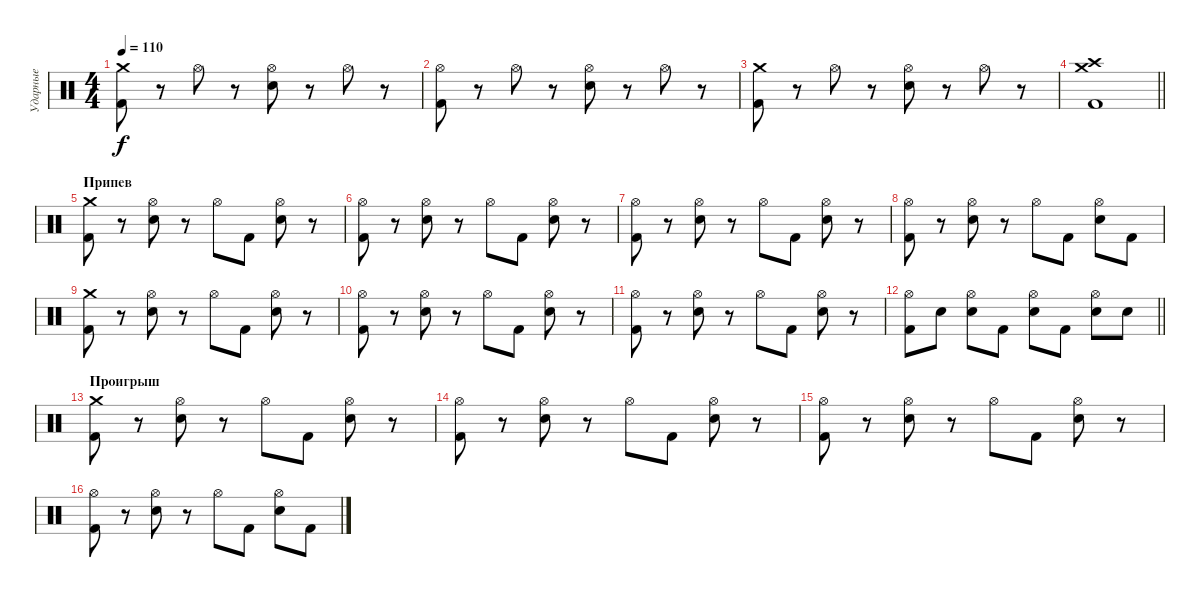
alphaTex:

\track ("Ударные" "Ударные") {instrument percussion}
\staff {score}
\articulation defaults
\ts (4 4)
\tempo 110
\clef neutral
\ks c
("Crash medium (hit)" "Kick (hit) 2").8{dy f} r.8 "Hi-Hat (open)".8 r.8 ("Hi-Hat (open)" "Snare (hit) 2").8 r.8 "Hi-Hat (open)".8 r.8 |
("Hi-Hat (open)" "Kick (hit) 2").8 r.8 "Hi-Hat (open)".8 r.8 ("Hi-Hat (open)" "Snare (hit) 2").8 r.8 "Hi-Hat (open)".8 r.8 |
("Crash medium (hit)" "Kick (hit) 2").8 r.8 "Hi-Hat (open)".8 r.8 ("Hi-Hat (open)" "Snare (hit) 2").8 r.8 "Hi-Hat (open)".8 r.8 |
\barLineRight lightlight
("Crash medium (hit)" "Crash high (hit)" "Kick (hit) 2").1 |
\section ("" "Припев")
("Crash medium (hit)" "Kick (hit) 2").8 r.8 ("Hi-Hat (open)" "Snare (hit) 2").8 r.8 "Hi-Hat (open)".8 "Kick (hit) 2".8 ("Hi-Hat (open)" "Snare (hit) 2").8 r.8 |
("Hi-Hat (open)" "Kick (hit) 2").8 r.8 ("Hi-Hat (open)" "Snare (hit) 2").8 r.8 "Hi-Hat (open)".8 "Kick (hit) 2".8 ("Hi-Hat (open)" "Snare (hit) 2").8 r.8 |
("Hi-Hat (open)" "Kick (hit) 2").8 r.8 ("Hi-Hat (open)" "Snare (hit) 2").8 r.8 "Hi-Hat (open)".8 "Kick (hit) 2".8 ("Hi-Hat (open)" "Snare (hit) 2").8 r.8 |
("Hi-Hat (open)" "Kick (hit) 2").8 r.8 ("Hi-Hat (open)" "Snare (hit) 2").8 r.8 "Hi-Hat (open)".8 "Kick (hit) 2".8 ("Hi-Hat (open)" "Snare (hit) 2").8 "Kick (hit) 2".8 |
("Crash medium (hit)" "Kick (hit) 2").8 r.8 ("Hi-Hat (open)" "Snare (hit) 2").8 r.8 "Hi-Hat (open)".8 "Kick (hit) 2".8 ("Hi-Hat (open)" "Snare (hit) 2").8 r.8 |
("Hi-Hat (open)" "Kick (hit) 2").8 r.8 ("Hi-Hat (open)" "Snare (hit) 2").8 r.8 "Hi-Hat (open)".8 "Kick (hit) 2".8 ("Hi-Hat (open)" "Snare (hit) 2").8 r.8 |
("Hi-Hat (open)" "Kick (hit) 2").8 r.8 ("Hi-Hat (open)" "Snare (hit) 2").8 r.8 "Hi-Hat (open)".8 "Kick (hit) 2".8 ("Hi-Hat (open)" "Snare (hit) 2").8 r.8 |
\barLineRight lightlight
("Hi-Hat (open)" "Kick (hit) 2").8 "Snare (hit) 2".8 ("Hi-Hat (open)" "Snare (hit) 2").8 "Kick (hit) 2".8 ("Hi-Hat (open)" "Snare (hit) 2").8 "Kick (hit) 2".8 ("Hi-Hat (open)" "Snare (hit) 2").8 "Snare (hit) 2".8 |
\section ("" "Проигрыш")
("Crash medium (hit)" "Kick (hit) 2").8 r.8 ("Hi-Hat (open)" "Snare (hit) 2").8 r.8 "Hi-Hat (open)".8 "Kick (hit) 2".8 ("Hi-Hat (open)" "Snare (hit) 2").8 r.8 |
("Hi-Hat (open)" "Kick (hit) 2").8 r.8 ("Hi-Hat (open)" "Snare (hit) 2").8 r.8 "Hi-Hat (open)".8 "Kick (hit) 2".8 ("Hi-Hat (open)" "Snare (hit) 2").8 r.8 |
("Hi-Hat (open)" "Kick (hit) 2").8 r.8 ("Hi-Hat (open)" "Snare (hit) 2").8 r.8 "Hi-Hat (open)".8 "Kick (hit) 2".8 ("Hi-Hat (open)" "Snare (hit) 2").8 r.8 |
("Hi-Hat (open)" "Kick (hit) 2").8 r.8 ("Hi-Hat (open)" "Snare (hit) 2").8 r.8 "Hi-Hat (open)".8 "Kick (hit) 2".8 ("Hi-Hat (open)" "Snare (hit) 2").8 "Kick (hit) 2".8
